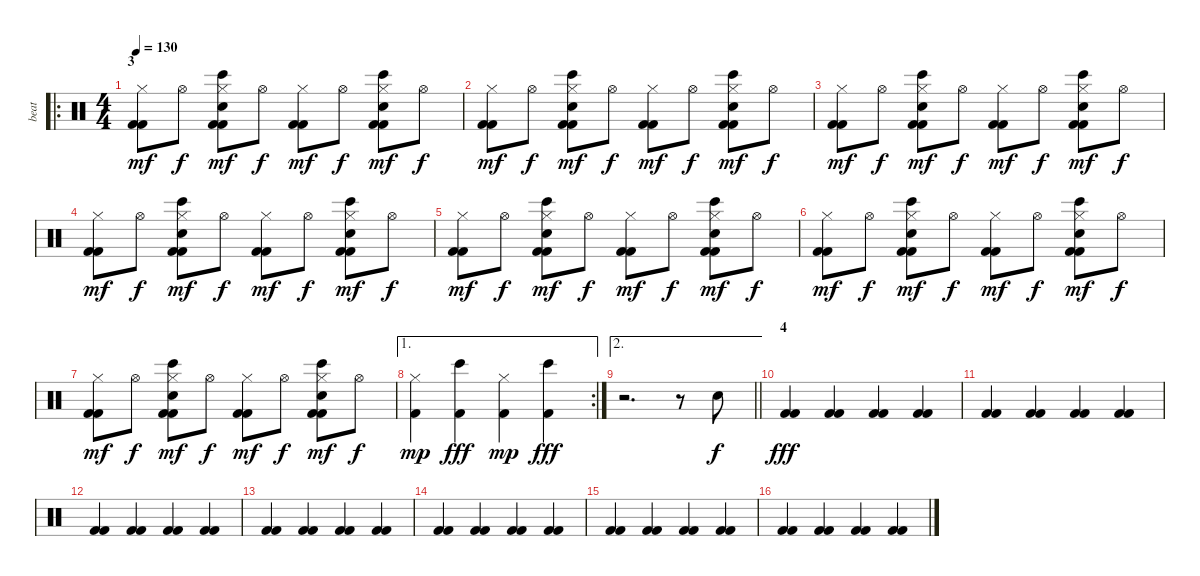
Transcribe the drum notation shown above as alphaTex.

\track ("beat" "beat") {instrument percussion}
\staff {score}
\articulation defaults
\ro
\ts (4 4)
\section ("" "3")
\tempo 130
\clef neutral
\ks c
("Kick (hit) 2" "Kick (hit) 2" "Hi-Hat (closed)").8{dy mf} "Hi-Hat (open)".8{dy f} ("Kick (hit) 2" "Kick (hit) 2" "Bongo High (hit)" "Hand Clap (hit)" "Hi-Hat (closed)").8{dy mf} "Hi-Hat (open)".8{dy f} ("Kick (hit) 2" "Kick (hit) 2" "Hi-Hat (closed)").8{dy mf} "Hi-Hat (open)".8{dy f} ("Kick (hit) 2" "Kick (hit) 2" "Bongo High (hit)" "Hand Clap (hit)" "Hi-Hat (closed)").8{dy mf} "Hi-Hat (open)".8{dy f} |
("Kick (hit) 2" "Kick (hit) 2" "Hi-Hat (closed)").8{dy mf} "Hi-Hat (open)".8{dy f} ("Kick (hit) 2" "Kick (hit) 2" "Bongo High (hit)" "Hand Clap (hit)" "Hi-Hat (closed)").8{dy mf} "Hi-Hat (open)".8{dy f} ("Kick (hit) 2" "Kick (hit) 2" "Hi-Hat (closed)").8{dy mf} "Hi-Hat (open)".8{dy f} ("Kick (hit) 2" "Kick (hit) 2" "Bongo High (hit)" "Hand Clap (hit)" "Hi-Hat (closed)").8{dy mf} "Hi-Hat (open)".8{dy f} |
("Kick (hit) 2" "Kick (hit) 2" "Hi-Hat (closed)").8{dy mf} "Hi-Hat (open)".8{dy f} ("Kick (hit) 2" "Kick (hit) 2" "Bongo High (hit)" "Hand Clap (hit)" "Hi-Hat (closed)").8{dy mf} "Hi-Hat (open)".8{dy f} ("Kick (hit) 2" "Kick (hit) 2" "Hi-Hat (closed)").8{dy mf} "Hi-Hat (open)".8{dy f} ("Kick (hit) 2" "Kick (hit) 2" "Bongo High (hit)" "Hand Clap (hit)" "Hi-Hat (closed)").8{dy mf} "Hi-Hat (open)".8{dy f} |
("Kick (hit) 2" "Kick (hit) 2" "Hi-Hat (closed)").8{dy mf} "Hi-Hat (open)".8{dy f} ("Kick (hit) 2" "Kick (hit) 2" "Bongo High (hit)" "Hand Clap (hit)" "Hi-Hat (closed)").8{dy mf} "Hi-Hat (open)".8{dy f} ("Kick (hit) 2" "Kick (hit) 2" "Hi-Hat (closed)").8{dy mf} "Hi-Hat (open)".8{dy f} ("Kick (hit) 2" "Kick (hit) 2" "Bongo High (hit)" "Hand Clap (hit)" "Hi-Hat (closed)").8{dy mf} "Hi-Hat (open)".8{dy f} |
("Kick (hit) 2" "Kick (hit) 2" "Hi-Hat (closed)").8{dy mf} "Hi-Hat (open)".8{dy f} ("Kick (hit) 2" "Kick (hit) 2" "Bongo High (hit)" "Hand Clap (hit)" "Hi-Hat (closed)").8{dy mf} "Hi-Hat (open)".8{dy f} ("Kick (hit) 2" "Kick (hit) 2" "Hi-Hat (closed)").8{dy mf} "Hi-Hat (open)".8{dy f} ("Kick (hit) 2" "Kick (hit) 2" "Bongo High (hit)" "Hand Clap (hit)" "Hi-Hat (closed)").8{dy mf} "Hi-Hat (open)".8{dy f} |
("Kick (hit) 2" "Kick (hit) 2" "Hi-Hat (closed)").8{dy mf} "Hi-Hat (open)".8{dy f} ("Kick (hit) 2" "Kick (hit) 2" "Bongo High (hit)" "Hand Clap (hit)" "Hi-Hat (closed)").8{dy mf} "Hi-Hat (open)".8{dy f} ("Kick (hit) 2" "Kick (hit) 2" "Hi-Hat (closed)").8{dy mf} "Hi-Hat (open)".8{dy f} ("Kick (hit) 2" "Kick (hit) 2" "Bongo High (hit)" "Hand Clap (hit)" "Hi-Hat (closed)").8{dy mf} "Hi-Hat (open)".8{dy f} |
("Kick (hit) 2" "Kick (hit) 2" "Hi-Hat (closed)").8{dy mf} "Hi-Hat (open)".8{dy f} ("Kick (hit) 2" "Kick (hit) 2" "Bongo High (hit)" "Hand Clap (hit)" "Hi-Hat (closed)").8{dy mf} "Hi-Hat (open)".8{dy f} ("Kick (hit) 2" "Kick (hit) 2" "Hi-Hat (closed)").8{dy mf} "Hi-Hat (open)".8{dy f} ("Kick (hit) 2" "Kick (hit) 2" "Bongo High (hit)" "Hand Clap (hit)" "Hi-Hat (closed)").8{dy mf} "Hi-Hat (open)".8{dy f} |
\ae 1
\rc 2
("Kick (hit) 2" "Hi-Hat (closed)").4{dy mp} ("Kick (hit) 2" "Bongo High (hit)").4{dy fff} ("Kick (hit) 2" "Hi-Hat (closed)").4{dy mp} ("Kick (hit) 2" "Bongo High (hit)").4{dy fff} |
\ae 2
\barLineRight lightlight
r.2{d} r.8 "Electric Snare (hit)".8{dy f} |
\section ("" "4")
("Kick (hit) 2" "Kick (hit) 2").4{dy fff} ("Kick (hit) 2" "Kick (hit) 2").4 ("Kick (hit) 2" "Kick (hit) 2").4 ("Kick (hit) 2" "Kick (hit) 2").4 |
("Kick (hit) 2" "Kick (hit) 2").4 ("Kick (hit) 2" "Kick (hit) 2").4 ("Kick (hit) 2" "Kick (hit) 2").4 ("Kick (hit) 2" "Kick (hit) 2").4 |
("Kick (hit) 2" "Kick (hit) 2").4 ("Kick (hit) 2" "Kick (hit) 2").4 ("Kick (hit) 2" "Kick (hit) 2").4 ("Kick (hit) 2" "Kick (hit) 2").4 |
("Kick (hit) 2" "Kick (hit) 2").4 ("Kick (hit) 2" "Kick (hit) 2").4 ("Kick (hit) 2" "Kick (hit) 2").4 ("Kick (hit) 2" "Kick (hit) 2").4 |
("Kick (hit) 2" "Kick (hit) 2").4 ("Kick (hit) 2" "Kick (hit) 2").4 ("Kick (hit) 2" "Kick (hit) 2").4 ("Kick (hit) 2" "Kick (hit) 2").4 |
("Kick (hit) 2" "Kick (hit) 2").4 ("Kick (hit) 2" "Kick (hit) 2").4 ("Kick (hit) 2" "Kick (hit) 2").4 ("Kick (hit) 2" "Kick (hit) 2").4 |
("Kick (hit) 2" "Kick (hit) 2").4 ("Kick (hit) 2" "Kick (hit) 2").4 ("Kick (hit) 2" "Kick (hit) 2").4 ("Kick (hit) 2" "Kick (hit) 2").4
